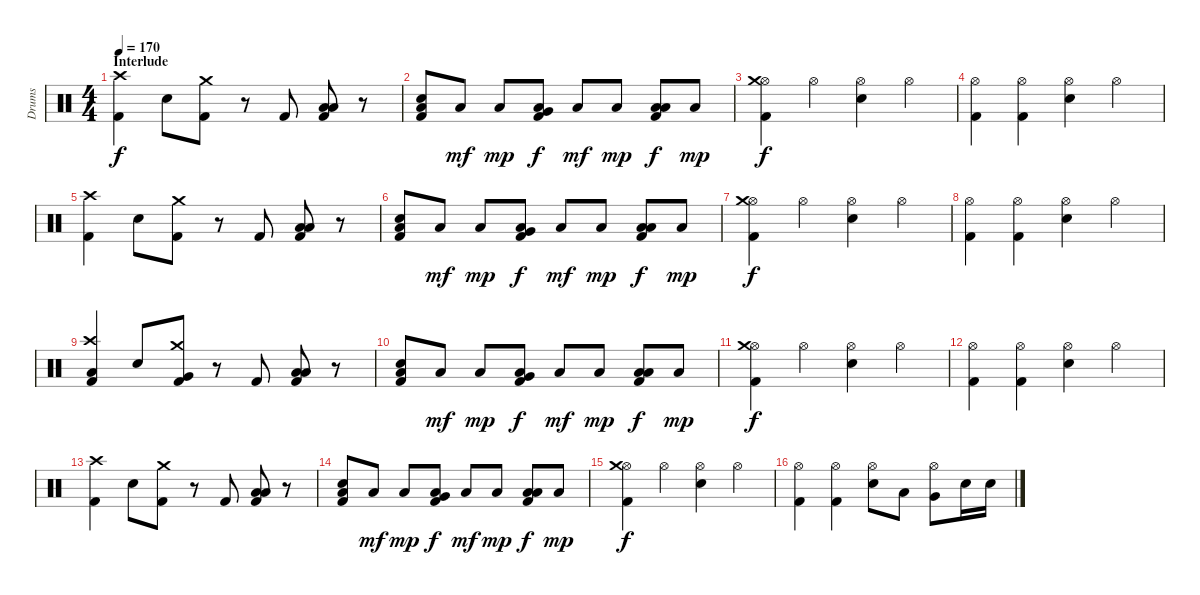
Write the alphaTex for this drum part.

\track ("Drums" "Drums") {instrument percussion}
\staff {score}
\articulation defaults
\ts (4 4)
\section ("" "Interlude")
\tempo 170
\clef neutral
\ks c
("Kick (hit) 2" "Crash high (hit)").4{dy f} "Electric Snare (hit)".8 ("Kick (hit) 2" "Crash medium (hit)").8 r.8 "Kick (hit) 2".8 ("Kick (hit) 2" "Low Tom (hit)" "Low Floor Tom (hit)").8 r.8 |
("Kick (hit) 2" "Low Floor Tom (hit)" "Electric Snare (hit)").8 "Low Floor Tom (hit)".8{dy mf} "Low Floor Tom (hit)".8{dy mp} ("Kick (hit) 2" "Low Floor Tom (hit)" "Very Low Tom (hit)").8{dy f} "Low Floor Tom (hit)".8{dy mf} "Low Floor Tom (hit)".8{dy mp} ("Kick (hit) 2" "Low Floor Tom (hit)" "Low Tom (hit)").8{dy f} "Low Floor Tom (hit)".8{dy mp} |
("Kick (hit) 2" "Hi-Hat (open)" "Crash medium (hit)").4{dy f} "Hi-Hat (open)".4 ("Hi-Hat (open)" "Electric Snare (hit)").4 "Hi-Hat (open)".4 |
("Kick (hit) 2" "Hi-Hat (open)").4 ("Kick (hit) 2" "Hi-Hat (open)").4 ("Hi-Hat (open)" "Electric Snare (hit)").4 "Hi-Hat (open)".4 |
("Kick (hit) 2" "Crash high (hit)").4 "Electric Snare (hit)".8 ("Kick (hit) 2" "Crash medium (hit)").8 r.8 "Kick (hit) 2".8 ("Kick (hit) 2" "Low Tom (hit)" "Low Floor Tom (hit)").8 r.8 |
("Kick (hit) 2" "Low Floor Tom (hit)" "Electric Snare (hit)").8 "Low Floor Tom (hit)".8{dy mf} "Low Floor Tom (hit)".8{dy mp} ("Kick (hit) 2" "Low Floor Tom (hit)" "Very Low Tom (hit)").8{dy f} "Low Floor Tom (hit)".8{dy mf} "Low Floor Tom (hit)".8{dy mp} ("Kick (hit) 2" "Low Floor Tom (hit)" "Low Tom (hit)").8{dy f} "Low Floor Tom (hit)".8{dy mp} |
("Kick (hit) 2" "Hi-Hat (open)" "Crash medium (hit)").4{dy f} "Hi-Hat (open)".4 ("Hi-Hat (open)" "Electric Snare (hit)").4 "Hi-Hat (open)".4 |
("Kick (hit) 2" "Hi-Hat (open)").4 ("Kick (hit) 2" "Hi-Hat (open)").4 ("Hi-Hat (open)" "Electric Snare (hit)").4 "Hi-Hat (open)".4 |
("Kick (hit) 2" "Low Tom (hit)" "Crash high (hit)").4 "Electric Snare (hit)".8 ("Kick (hit) 2" "Very Low Tom (hit)" "Crash medium (hit)").8 r.8 "Kick (hit) 2".8 ("Kick (hit) 2" "Low Tom (hit)" "Low Floor Tom (hit)").8 r.8 |
("Kick (hit) 2" "Low Floor Tom (hit)" "Electric Snare (hit)").8 "Low Floor Tom (hit)".8{dy mf} "Low Floor Tom (hit)".8{dy mp} ("Kick (hit) 2" "Low Floor Tom (hit)" "Very Low Tom (hit)").8{dy f} "Low Floor Tom (hit)".8{dy mf} "Low Floor Tom (hit)".8{dy mp} ("Kick (hit) 2" "Low Floor Tom (hit)" "Low Tom (hit)").8{dy f} "Low Floor Tom (hit)".8{dy mp} |
("Kick (hit) 2" "Hi-Hat (open)" "Crash medium (hit)").4{dy f} "Hi-Hat (open)".4 ("Hi-Hat (open)" "Electric Snare (hit)").4 "Hi-Hat (open)".4 |
("Kick (hit) 2" "Hi-Hat (open)").4 ("Kick (hit) 2" "Hi-Hat (open)").4 ("Hi-Hat (open)" "Electric Snare (hit)").4 "Hi-Hat (open)".4 |
("Kick (hit) 2" "Crash high (hit)").4 "Electric Snare (hit)".8 ("Kick (hit) 2" "Crash medium (hit)").8 r.8 "Kick (hit) 2".8 ("Kick (hit) 2" "Low Tom (hit)" "Low Floor Tom (hit)").8 r.8 |
("Kick (hit) 2" "Low Floor Tom (hit)" "Electric Snare (hit)").8 "Low Floor Tom (hit)".8{dy mf} "Low Floor Tom (hit)".8{dy mp} ("Kick (hit) 2" "Low Floor Tom (hit)" "Very Low Tom (hit)").8{dy f} "Low Floor Tom (hit)".8{dy mf} "Low Floor Tom (hit)".8{dy mp} ("Kick (hit) 2" "Low Floor Tom (hit)" "Low Tom (hit)").8{dy f} "Low Floor Tom (hit)".8{dy mp} |
("Kick (hit) 2" "Hi-Hat (open)" "Crash medium (hit)").4{dy f} "Hi-Hat (open)".4 ("Hi-Hat (open)" "Electric Snare (hit)").4 "Hi-Hat (open)".4 |
("Kick (hit) 2" "Hi-Hat (open)").4 ("Kick (hit) 2" "Hi-Hat (open)").4 ("Hi-Hat (open)" "Electric Snare (hit)").8 "Low Tom (hit)".8 ("Hi-Hat (open)" "Very Low Tom (hit)").8 "Electric Snare (hit)".16 "Electric Snare (hit)".16
